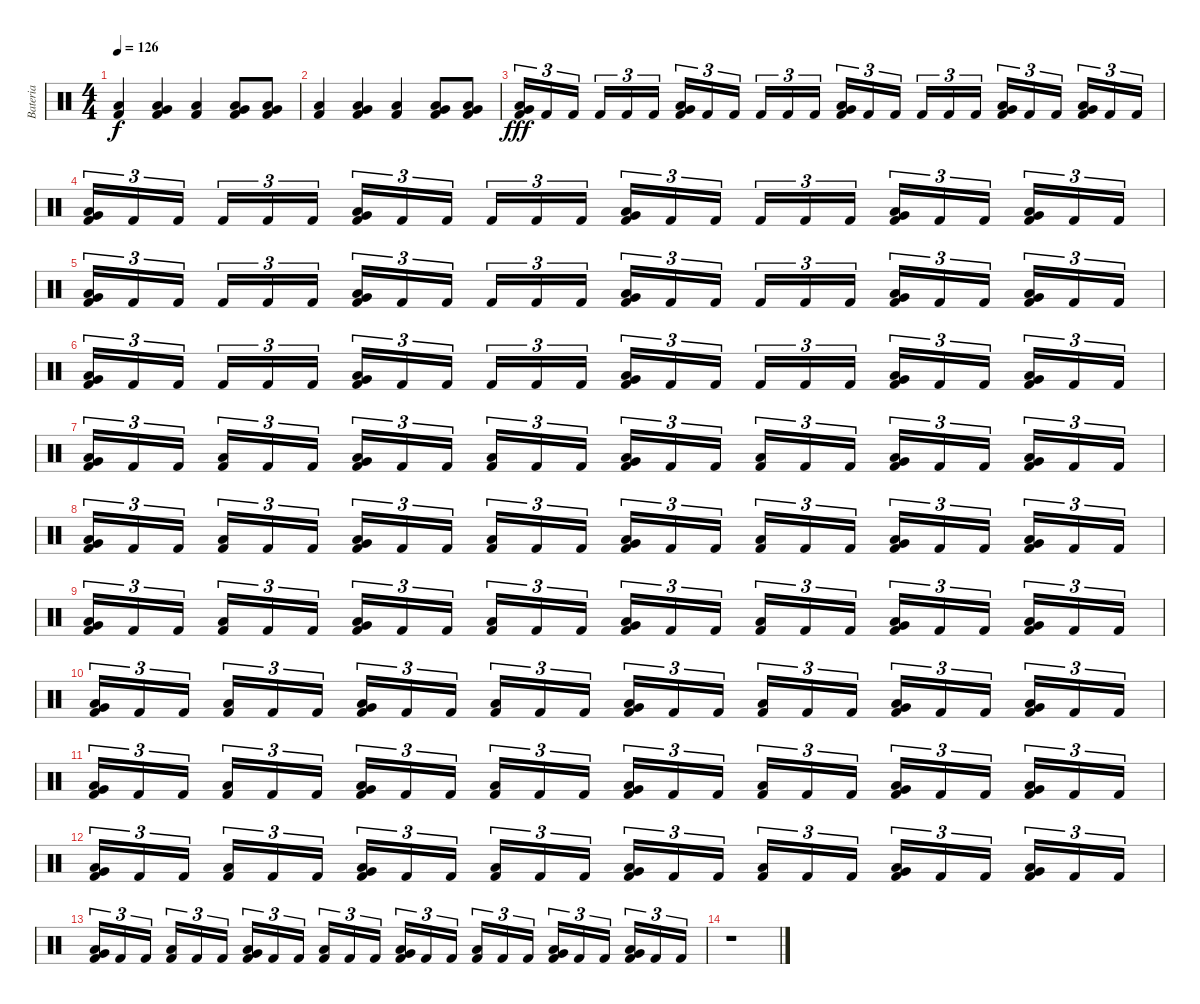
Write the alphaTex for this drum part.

\track ("Bateria" "Bateria") {instrument percussion}
\staff {score}
\articulation defaults
\ts (4 4)
\tempo 126
\clef neutral
\ks c
("Kick (hit) 2" "Low Floor Tom (hit)").4{dy f} ("Kick (hit) 2" "Low Floor Tom (hit)" "Very Low Tom (hit)").4 ("Kick (hit) 2" "Low Floor Tom (hit)").4 ("Kick (hit) 2" "Low Floor Tom (hit)" "Very Low Tom (hit)").8 ("Kick (hit) 2" "Low Floor Tom (hit)" "Very Low Tom (hit)").8 |
("Kick (hit) 2" "Low Floor Tom (hit)").4 ("Kick (hit) 2" "Low Floor Tom (hit)" "Very Low Tom (hit)").4 ("Kick (hit) 2" "Low Floor Tom (hit)").4 ("Kick (hit) 2" "Low Floor Tom (hit)" "Very Low Tom (hit)").8 ("Kick (hit) 2" "Low Floor Tom (hit)" "Very Low Tom (hit)").8 |
("Kick (hit) 2" "Low Floor Tom (hit)" "Very Low Tom (hit)").16{tu (3 2) dy fff} "Kick (hit) 2".16{tu (3 2)} "Kick (hit) 2".16{tu (3 2)} "Kick (hit) 2".16{tu (3 2)} "Kick (hit) 2".16{tu (3 2)} "Kick (hit) 2".16{tu (3 2)} ("Kick (hit) 2" "Low Floor Tom (hit)" "Very Low Tom (hit)").16{tu (3 2)} "Kick (hit) 2".16{tu (3 2)} "Kick (hit) 2".16{tu (3 2)} "Kick (hit) 2".16{tu (3 2)} "Kick (hit) 2".16{tu (3 2)} "Kick (hit) 2".16{tu (3 2)} ("Kick (hit) 2" "Low Floor Tom (hit)" "Very Low Tom (hit)").16{tu (3 2)} "Kick (hit) 2".16{tu (3 2)} "Kick (hit) 2".16{tu (3 2)} "Kick (hit) 2".16{tu (3 2)} "Kick (hit) 2".16{tu (3 2)} "Kick (hit) 2".16{tu (3 2)} ("Kick (hit) 2" "Low Floor Tom (hit)" "Very Low Tom (hit)").16{tu (3 2)} "Kick (hit) 2".16{tu (3 2)} "Kick (hit) 2".16{tu (3 2)} ("Kick (hit) 2" "Low Floor Tom (hit)" "Very Low Tom (hit)").16{tu (3 2)} "Kick (hit) 2".16{tu (3 2)} "Kick (hit) 2".16{tu (3 2)} |
("Kick (hit) 2" "Low Floor Tom (hit)" "Very Low Tom (hit)").16{tu (3 2)} "Kick (hit) 2".16{tu (3 2)} "Kick (hit) 2".16{tu (3 2)} "Kick (hit) 2".16{tu (3 2)} "Kick (hit) 2".16{tu (3 2)} "Kick (hit) 2".16{tu (3 2)} ("Kick (hit) 2" "Low Floor Tom (hit)" "Very Low Tom (hit)").16{tu (3 2)} "Kick (hit) 2".16{tu (3 2)} "Kick (hit) 2".16{tu (3 2)} "Kick (hit) 2".16{tu (3 2)} "Kick (hit) 2".16{tu (3 2)} "Kick (hit) 2".16{tu (3 2)} ("Kick (hit) 2" "Low Floor Tom (hit)" "Very Low Tom (hit)").16{tu (3 2)} "Kick (hit) 2".16{tu (3 2)} "Kick (hit) 2".16{tu (3 2)} "Kick (hit) 2".16{tu (3 2)} "Kick (hit) 2".16{tu (3 2)} "Kick (hit) 2".16{tu (3 2)} ("Kick (hit) 2" "Low Floor Tom (hit)" "Very Low Tom (hit)").16{tu (3 2)} "Kick (hit) 2".16{tu (3 2)} "Kick (hit) 2".16{tu (3 2)} ("Kick (hit) 2" "Low Floor Tom (hit)" "Very Low Tom (hit)").16{tu (3 2)} "Kick (hit) 2".16{tu (3 2)} "Kick (hit) 2".16{tu (3 2)} |
("Kick (hit) 2" "Low Floor Tom (hit)" "Very Low Tom (hit)").16{tu (3 2)} "Kick (hit) 2".16{tu (3 2)} "Kick (hit) 2".16{tu (3 2)} "Kick (hit) 2".16{tu (3 2)} "Kick (hit) 2".16{tu (3 2)} "Kick (hit) 2".16{tu (3 2)} ("Kick (hit) 2" "Low Floor Tom (hit)" "Very Low Tom (hit)").16{tu (3 2)} "Kick (hit) 2".16{tu (3 2)} "Kick (hit) 2".16{tu (3 2)} "Kick (hit) 2".16{tu (3 2)} "Kick (hit) 2".16{tu (3 2)} "Kick (hit) 2".16{tu (3 2)} ("Kick (hit) 2" "Low Floor Tom (hit)" "Very Low Tom (hit)").16{tu (3 2)} "Kick (hit) 2".16{tu (3 2)} "Kick (hit) 2".16{tu (3 2)} "Kick (hit) 2".16{tu (3 2)} "Kick (hit) 2".16{tu (3 2)} "Kick (hit) 2".16{tu (3 2)} ("Kick (hit) 2" "Low Floor Tom (hit)" "Very Low Tom (hit)").16{tu (3 2)} "Kick (hit) 2".16{tu (3 2)} "Kick (hit) 2".16{tu (3 2)} ("Kick (hit) 2" "Low Floor Tom (hit)" "Very Low Tom (hit)").16{tu (3 2)} "Kick (hit) 2".16{tu (3 2)} "Kick (hit) 2".16{tu (3 2)} |
("Kick (hit) 2" "Low Floor Tom (hit)" "Very Low Tom (hit)").16{tu (3 2)} "Kick (hit) 2".16{tu (3 2)} "Kick (hit) 2".16{tu (3 2)} "Kick (hit) 2".16{tu (3 2)} "Kick (hit) 2".16{tu (3 2)} "Kick (hit) 2".16{tu (3 2)} ("Kick (hit) 2" "Low Floor Tom (hit)" "Very Low Tom (hit)").16{tu (3 2)} "Kick (hit) 2".16{tu (3 2)} "Kick (hit) 2".16{tu (3 2)} "Kick (hit) 2".16{tu (3 2)} "Kick (hit) 2".16{tu (3 2)} "Kick (hit) 2".16{tu (3 2)} ("Kick (hit) 2" "Low Floor Tom (hit)" "Very Low Tom (hit)").16{tu (3 2)} "Kick (hit) 2".16{tu (3 2)} "Kick (hit) 2".16{tu (3 2)} "Kick (hit) 2".16{tu (3 2)} "Kick (hit) 2".16{tu (3 2)} "Kick (hit) 2".16{tu (3 2)} ("Kick (hit) 2" "Low Floor Tom (hit)" "Very Low Tom (hit)").16{tu (3 2)} "Kick (hit) 2".16{tu (3 2)} "Kick (hit) 2".16{tu (3 2)} ("Kick (hit) 2" "Low Floor Tom (hit)" "Very Low Tom (hit)").16{tu (3 2)} "Kick (hit) 2".16{tu (3 2)} "Kick (hit) 2".16{tu (3 2)} |
("Kick (hit) 2" "Low Floor Tom (hit)" "Very Low Tom (hit)").16{tu (3 2)} "Kick (hit) 2".16{tu (3 2)} "Kick (hit) 2".16{tu (3 2)} ("Kick (hit) 2" "Low Floor Tom (hit)").16{tu (3 2)} "Kick (hit) 2".16{tu (3 2)} "Kick (hit) 2".16{tu (3 2)} ("Kick (hit) 2" "Low Floor Tom (hit)" "Very Low Tom (hit)").16{tu (3 2)} "Kick (hit) 2".16{tu (3 2)} "Kick (hit) 2".16{tu (3 2)} ("Kick (hit) 2" "Low Floor Tom (hit)").16{tu (3 2)} "Kick (hit) 2".16{tu (3 2)} "Kick (hit) 2".16{tu (3 2)} ("Kick (hit) 2" "Low Floor Tom (hit)" "Very Low Tom (hit)").16{tu (3 2)} "Kick (hit) 2".16{tu (3 2)} "Kick (hit) 2".16{tu (3 2)} ("Kick (hit) 2" "Low Floor Tom (hit)").16{tu (3 2)} "Kick (hit) 2".16{tu (3 2)} "Kick (hit) 2".16{tu (3 2)} ("Kick (hit) 2" "Low Floor Tom (hit)" "Very Low Tom (hit)").16{tu (3 2)} "Kick (hit) 2".16{tu (3 2)} "Kick (hit) 2".16{tu (3 2)} ("Kick (hit) 2" "Low Floor Tom (hit)" "Very Low Tom (hit)").16{tu (3 2)} "Kick (hit) 2".16{tu (3 2)} "Kick (hit) 2".16{tu (3 2)} |
("Kick (hit) 2" "Low Floor Tom (hit)" "Very Low Tom (hit)").16{tu (3 2)} "Kick (hit) 2".16{tu (3 2)} "Kick (hit) 2".16{tu (3 2)} ("Kick (hit) 2" "Low Floor Tom (hit)").16{tu (3 2)} "Kick (hit) 2".16{tu (3 2)} "Kick (hit) 2".16{tu (3 2)} ("Kick (hit) 2" "Low Floor Tom (hit)" "Very Low Tom (hit)").16{tu (3 2)} "Kick (hit) 2".16{tu (3 2)} "Kick (hit) 2".16{tu (3 2)} ("Kick (hit) 2" "Low Floor Tom (hit)").16{tu (3 2)} "Kick (hit) 2".16{tu (3 2)} "Kick (hit) 2".16{tu (3 2)} ("Kick (hit) 2" "Low Floor Tom (hit)" "Very Low Tom (hit)").16{tu (3 2)} "Kick (hit) 2".16{tu (3 2)} "Kick (hit) 2".16{tu (3 2)} ("Kick (hit) 2" "Low Floor Tom (hit)").16{tu (3 2)} "Kick (hit) 2".16{tu (3 2)} "Kick (hit) 2".16{tu (3 2)} ("Kick (hit) 2" "Low Floor Tom (hit)" "Very Low Tom (hit)").16{tu (3 2)} "Kick (hit) 2".16{tu (3 2)} "Kick (hit) 2".16{tu (3 2)} ("Kick (hit) 2" "Low Floor Tom (hit)" "Very Low Tom (hit)").16{tu (3 2)} "Kick (hit) 2".16{tu (3 2)} "Kick (hit) 2".16{tu (3 2)} |
("Kick (hit) 2" "Low Floor Tom (hit)" "Very Low Tom (hit)").16{tu (3 2)} "Kick (hit) 2".16{tu (3 2)} "Kick (hit) 2".16{tu (3 2)} ("Kick (hit) 2" "Low Floor Tom (hit)").16{tu (3 2)} "Kick (hit) 2".16{tu (3 2)} "Kick (hit) 2".16{tu (3 2)} ("Kick (hit) 2" "Low Floor Tom (hit)" "Very Low Tom (hit)").16{tu (3 2)} "Kick (hit) 2".16{tu (3 2)} "Kick (hit) 2".16{tu (3 2)} ("Kick (hit) 2" "Low Floor Tom (hit)").16{tu (3 2)} "Kick (hit) 2".16{tu (3 2)} "Kick (hit) 2".16{tu (3 2)} ("Kick (hit) 2" "Low Floor Tom (hit)" "Very Low Tom (hit)").16{tu (3 2)} "Kick (hit) 2".16{tu (3 2)} "Kick (hit) 2".16{tu (3 2)} ("Kick (hit) 2" "Low Floor Tom (hit)").16{tu (3 2)} "Kick (hit) 2".16{tu (3 2)} "Kick (hit) 2".16{tu (3 2)} ("Kick (hit) 2" "Low Floor Tom (hit)" "Very Low Tom (hit)").16{tu (3 2)} "Kick (hit) 2".16{tu (3 2)} "Kick (hit) 2".16{tu (3 2)} ("Kick (hit) 2" "Low Floor Tom (hit)" "Very Low Tom (hit)").16{tu (3 2)} "Kick (hit) 2".16{tu (3 2)} "Kick (hit) 2".16{tu (3 2)} |
("Kick (hit) 2" "Low Floor Tom (hit)" "Very Low Tom (hit)").16{tu (3 2)} "Kick (hit) 2".16{tu (3 2)} "Kick (hit) 2".16{tu (3 2)} ("Kick (hit) 2" "Low Floor Tom (hit)").16{tu (3 2)} "Kick (hit) 2".16{tu (3 2)} "Kick (hit) 2".16{tu (3 2)} ("Kick (hit) 2" "Low Floor Tom (hit)" "Very Low Tom (hit)").16{tu (3 2)} "Kick (hit) 2".16{tu (3 2)} "Kick (hit) 2".16{tu (3 2)} ("Kick (hit) 2" "Low Floor Tom (hit)").16{tu (3 2)} "Kick (hit) 2".16{tu (3 2)} "Kick (hit) 2".16{tu (3 2)} ("Kick (hit) 2" "Low Floor Tom (hit)" "Very Low Tom (hit)").16{tu (3 2)} "Kick (hit) 2".16{tu (3 2)} "Kick (hit) 2".16{tu (3 2)} ("Kick (hit) 2" "Low Floor Tom (hit)").16{tu (3 2)} "Kick (hit) 2".16{tu (3 2)} "Kick (hit) 2".16{tu (3 2)} ("Kick (hit) 2" "Low Floor Tom (hit)" "Very Low Tom (hit)").16{tu (3 2)} "Kick (hit) 2".16{tu (3 2)} "Kick (hit) 2".16{tu (3 2)} ("Kick (hit) 2" "Low Floor Tom (hit)" "Very Low Tom (hit)").16{tu (3 2)} "Kick (hit) 2".16{tu (3 2)} "Kick (hit) 2".16{tu (3 2)} |
("Kick (hit) 2" "Low Floor Tom (hit)" "Very Low Tom (hit)").16{tu (3 2)} "Kick (hit) 2".16{tu (3 2)} "Kick (hit) 2".16{tu (3 2)} ("Kick (hit) 2" "Low Floor Tom (hit)").16{tu (3 2)} "Kick (hit) 2".16{tu (3 2)} "Kick (hit) 2".16{tu (3 2)} ("Kick (hit) 2" "Low Floor Tom (hit)" "Very Low Tom (hit)").16{tu (3 2)} "Kick (hit) 2".16{tu (3 2)} "Kick (hit) 2".16{tu (3 2)} ("Kick (hit) 2" "Low Floor Tom (hit)").16{tu (3 2)} "Kick (hit) 2".16{tu (3 2)} "Kick (hit) 2".16{tu (3 2)} ("Kick (hit) 2" "Low Floor Tom (hit)" "Very Low Tom (hit)").16{tu (3 2)} "Kick (hit) 2".16{tu (3 2)} "Kick (hit) 2".16{tu (3 2)} ("Kick (hit) 2" "Low Floor Tom (hit)").16{tu (3 2)} "Kick (hit) 2".16{tu (3 2)} "Kick (hit) 2".16{tu (3 2)} ("Kick (hit) 2" "Low Floor Tom (hit)" "Very Low Tom (hit)").16{tu (3 2)} "Kick (hit) 2".16{tu (3 2)} "Kick (hit) 2".16{tu (3 2)} ("Kick (hit) 2" "Low Floor Tom (hit)" "Very Low Tom (hit)").16{tu (3 2)} "Kick (hit) 2".16{tu (3 2)} "Kick (hit) 2".16{tu (3 2)} |
("Kick (hit) 2" "Low Floor Tom (hit)" "Very Low Tom (hit)").16{tu (3 2)} "Kick (hit) 2".16{tu (3 2)} "Kick (hit) 2".16{tu (3 2)} ("Kick (hit) 2" "Low Floor Tom (hit)").16{tu (3 2)} "Kick (hit) 2".16{tu (3 2)} "Kick (hit) 2".16{tu (3 2)} ("Kick (hit) 2" "Low Floor Tom (hit)" "Very Low Tom (hit)").16{tu (3 2)} "Kick (hit) 2".16{tu (3 2)} "Kick (hit) 2".16{tu (3 2)} ("Kick (hit) 2" "Low Floor Tom (hit)").16{tu (3 2)} "Kick (hit) 2".16{tu (3 2)} "Kick (hit) 2".16{tu (3 2)} ("Kick (hit) 2" "Low Floor Tom (hit)" "Very Low Tom (hit)").16{tu (3 2)} "Kick (hit) 2".16{tu (3 2)} "Kick (hit) 2".16{tu (3 2)} ("Kick (hit) 2" "Low Floor Tom (hit)").16{tu (3 2)} "Kick (hit) 2".16{tu (3 2)} "Kick (hit) 2".16{tu (3 2)} ("Kick (hit) 2" "Low Floor Tom (hit)" "Very Low Tom (hit)").16{tu (3 2)} "Kick (hit) 2".16{tu (3 2)} "Kick (hit) 2".16{tu (3 2)} ("Kick (hit) 2" "Low Floor Tom (hit)" "Very Low Tom (hit)").16{tu (3 2)} "Kick (hit) 2".16{tu (3 2)} "Kick (hit) 2".16{tu (3 2)} |
("Kick (hit) 2" "Low Floor Tom (hit)" "Very Low Tom (hit)").16{tu (3 2)} "Kick (hit) 2".16{tu (3 2)} "Kick (hit) 2".16{tu (3 2)} ("Kick (hit) 2" "Low Floor Tom (hit)").16{tu (3 2)} "Kick (hit) 2".16{tu (3 2)} "Kick (hit) 2".16{tu (3 2)} ("Kick (hit) 2" "Low Floor Tom (hit)" "Very Low Tom (hit)").16{tu (3 2)} "Kick (hit) 2".16{tu (3 2)} "Kick (hit) 2".16{tu (3 2)} ("Kick (hit) 2" "Low Floor Tom (hit)").16{tu (3 2)} "Kick (hit) 2".16{tu (3 2)} "Kick (hit) 2".16{tu (3 2)} ("Kick (hit) 2" "Low Floor Tom (hit)" "Very Low Tom (hit)").16{tu (3 2)} "Kick (hit) 2".16{tu (3 2)} "Kick (hit) 2".16{tu (3 2)} ("Kick (hit) 2" "Low Floor Tom (hit)").16{tu (3 2)} "Kick (hit) 2".16{tu (3 2)} "Kick (hit) 2".16{tu (3 2)} ("Kick (hit) 2" "Low Floor Tom (hit)" "Very Low Tom (hit)").16{tu (3 2)} "Kick (hit) 2".16{tu (3 2)} "Kick (hit) 2".16{tu (3 2)} ("Kick (hit) 2" "Low Floor Tom (hit)" "Very Low Tom (hit)").16{tu (3 2)} "Kick (hit) 2".16{tu (3 2)} "Kick (hit) 2".16{tu (3 2)} |
r.1
